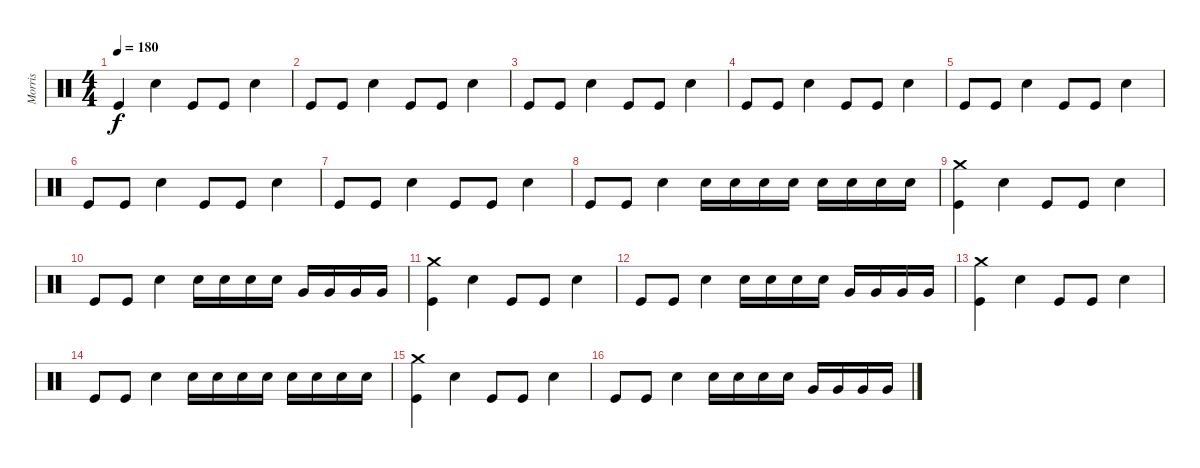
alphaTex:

\track ("Morris" "Morris") {instrument percussion}
\staff {score}
\articulation defaults
\ts (4 4)
\tempo 180
\clef neutral
\ks c "Kick (hit)".4{dy f} "Electric Snare (hit)".4 "Kick (hit)".8 "Kick (hit)".8 "Electric Snare (hit)".4
|
"Kick (hit)".8 "Kick (hit)".8 "Electric Snare (hit)".4 "Kick (hit)".8 "Kick (hit)".8 "Electric Snare (hit)".4 |
"Kick (hit)".8 "Kick (hit)".8 "Electric Snare (hit)".4 "Kick (hit)".8 "Kick (hit)".8 "Electric Snare (hit)".4 |
"Kick (hit)".8 "Kick (hit)".8 "Electric Snare (hit)".4 "Kick (hit)".8 "Kick (hit)".8 "Electric Snare (hit)".4 |
"Kick (hit)".8 "Kick (hit)".8 "Electric Snare (hit)".4 "Kick (hit)".8 "Kick (hit)".8 "Electric Snare (hit)".4 |
"Kick (hit)".8 "Kick (hit)".8 "Electric Snare (hit)".4 "Kick (hit)".8 "Kick (hit)".8 "Electric Snare (hit)".4 |
"Kick (hit)".8 "Kick (hit)".8 "Electric Snare (hit)".4 "Kick (hit)".8 "Kick (hit)".8 "Electric Snare (hit)".4 |
"Kick (hit)".8 "Kick (hit)".8 "Electric Snare (hit)".4 "Electric Snare (hit)".16 "Electric Snare (hit)".16 "Electric Snare (hit)".16 "Electric Snare (hit)".16 "Electric Snare (hit)".16 "Electric Snare (hit)".16 "Electric Snare (hit)".16 "Electric Snare (hit)".16 |
("Crash medium (hit)" "Kick (hit)").4 "Electric Snare (hit)".4 "Kick (hit)".8 "Kick (hit)".8 "Electric Snare (hit)".4 |
"Kick (hit)".8 "Kick (hit)".8 "Electric Snare (hit)".4 "Electric Snare (hit)".16 "Electric Snare (hit)".16 "Electric Snare (hit)".16 "Electric Snare (hit)".16 "Very Low Tom (hit)".16 "Very Low Tom (hit)".16 "Very Low Tom (hit)".16 "Very Low Tom (hit)".16 |
("Crash medium (hit)" "Kick (hit)").4 "Electric Snare (hit)".4 "Kick (hit)".8 "Kick (hit)".8 "Electric Snare (hit)".4 |
"Kick (hit)".8 "Kick (hit)".8 "Electric Snare (hit)".4 "Electric Snare (hit)".16 "Electric Snare (hit)".16 "Electric Snare (hit)".16 "Electric Snare (hit)".16 "Very Low Tom (hit)".16 "Very Low Tom (hit)".16 "Very Low Tom (hit)".16 "Very Low Tom (hit)".16 |
("Crash medium (hit)" "Kick (hit)").4 "Electric Snare (hit)".4 "Kick (hit)".8 "Kick (hit)".8 "Electric Snare (hit)".4 |
"Kick (hit)".8 "Kick (hit)".8 "Electric Snare (hit)".4 "Electric Snare (hit)".16 "Electric Snare (hit)".16 "Electric Snare (hit)".16 "Electric Snare (hit)".16 "Electric Snare (hit)".16 "Electric Snare (hit)".16 "Electric Snare (hit)".16 "Electric Snare (hit)".16 |
("Crash medium (hit)" "Kick (hit)").4 "Electric Snare (hit)".4 "Kick (hit)".8 "Kick (hit)".8 "Electric Snare (hit)".4 |
"Kick (hit)".8 "Kick (hit)".8 "Electric Snare (hit)".4 "Electric Snare (hit)".16 "Electric Snare (hit)".16 "Electric Snare (hit)".16 "Electric Snare (hit)".16 "Very Low Tom (hit)".16 "Very Low Tom (hit)".16 "Very Low Tom (hit)".16 "Very Low Tom (hit)".16
